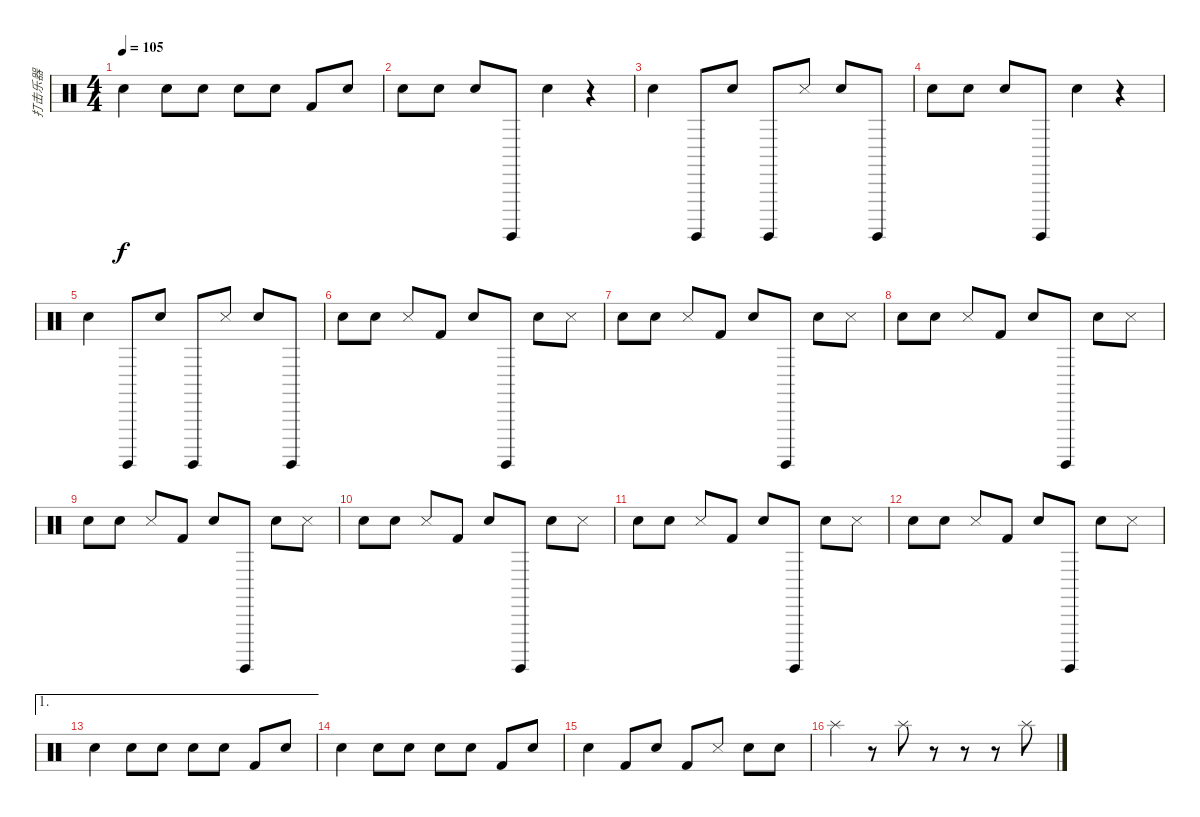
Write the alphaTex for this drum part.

\track ("打击乐器" "打击乐器") {instrument percussion}
\staff {score}
\articulation defaults
\ts (4 4)
\tempo 105
\clef neutral
\ks c "Snare (hit) 2".4{dy f} "Snare (hit) 2".8 "Electric Snare (hit)".8 "Hand Clap (hit)".8 "Snare (hit) 2".8 "Kick (hit) 2".8 "Snare (hit) 2".8
|
"Snare (hit) 2".8 "Snare (hit) 2".8 "Hand Clap (hit)".8 "Surdo (hit)".8 "Snare (hit) 2".4 r.4 |
"Snare (hit) 2".4 "Surdo (hit)".8 "Snare (hit) 2".8 "Surdo (hit)".8 "Snare (side stick) 3".8 "Snare (hit) 2".8 "Surdo (hit)".8 |
"Snare (hit) 2".8 "Snare (hit) 2".8 "Hand Clap (hit)".8 "Surdo (hit)".8 "Snare (hit) 2".4 r.4 |
"Snare (hit) 2".4 "Surdo (hit)".8 "Snare (hit) 2".8 "Surdo (hit)".8 "Snare (side stick) 3".8 "Snare (hit) 2".8 "Surdo (hit)".8 |
"Snare (hit) 2".8 "Snare (hit) 2".8 "Snare (side stick) 3".8 "Kick (hit) 2".8 "Snare (hit) 2".8 "Surdo (hit)".8 "Snare (hit) 2".8 "Snare (side stick) 3".8 |
"Snare (hit) 2".8 "Snare (hit) 2".8 "Snare (side stick) 3".8 "Kick (hit) 2".8 "Snare (hit) 2".8 "Surdo (hit)".8 "Snare (hit) 2".8 "Snare (side stick) 3".8 |
"Snare (hit) 2".8 "Snare (hit) 2".8 "Snare (side stick) 3".8 "Kick (hit) 2".8 "Snare (hit) 2".8 "Surdo (hit)".8 "Snare (hit) 2".8 "Snare (side stick) 3".8 |
"Snare (hit) 2".8 "Snare (hit) 2".8 "Snare (side stick) 3".8 "Kick (hit) 2".8 "Snare (hit) 2".8 "Surdo (hit)".8 "Snare (hit) 2".8 "Snare (side stick) 3".8 |
"Snare (hit) 2".8 "Snare (hit) 2".8 "Snare (side stick) 3".8 "Kick (hit) 2".8 "Snare (hit) 2".8 "Surdo (hit)".8 "Snare (hit) 2".8 "Snare (side stick) 3".8 |
"Snare (hit) 2".8 "Snare (hit) 2".8 "Snare (side stick) 3".8 "Kick (hit) 2".8 "Snare (hit) 2".8 "Surdo (hit)".8 "Snare (hit) 2".8 "Snare (side stick) 3".8 |
"Snare (hit) 2".8 "Snare (hit) 2".8 "Snare (side stick) 3".8 "Kick (hit) 2".8 "Snare (hit) 2".8 "Surdo (hit)".8 "Snare (hit) 2".8 "Snare (side stick) 3".8 |
\ae 1 "Snare (hit) 2".4 "Snare (hit) 2".8 "Electric Snare (hit)".8 "Hand Clap (hit)".8 "Snare (hit) 2".8 "Kick (hit) 2".8 "Snare (hit) 2".8
|
"Snare (hit) 2".4 "Snare (hit) 2".8 "Electric Snare (hit)".8 "Hand Clap (hit)".8 "Snare (hit) 2".8 "Kick (hit) 2".8 "Snare (hit) 2".8 |
"Snare (hit) 2".4 "Kick (hit) 2".8 "Snare (hit) 2".8 "Kick (hit) 2".8 "Snare (side stick) 3".8 "Snare (hit) 2".8 "Snare (hit) 2".8 |
"Splash (hit)".4 r.8 "Splash (hit)".8 r.8 r.8 r.8 "Splash (hit)".8
